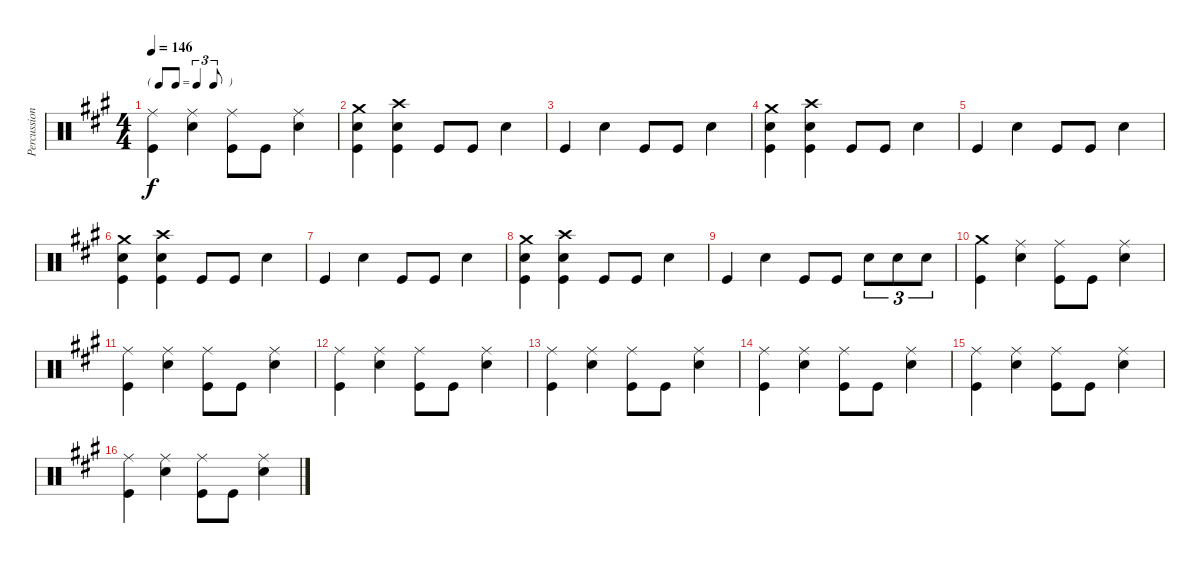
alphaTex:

\track ("Percussion" "Percussion") {instrument percussion}
\staff {score}
\articulation defaults
\ts (4 4)
\tf triplet8th
\tempo 146
\clef neutral
\ks a
("Ride (middle)" "Kick (hit)").4{dy f} ("Ride (middle)" "Snare (hit) 2").4 ("Ride (middle)" "Kick (hit)").8 "Kick (hit)".8 ("Ride (middle)" "Snare (hit) 2").4 |
("Crash medium (hit)" "Snare (hit) 2" "Kick (hit)").4 ("Crash high (hit)" "Snare (hit) 2" "Kick (hit)").4 "Kick (hit)".8 "Kick (hit)".8 "Snare (hit) 2".4 |
"Kick (hit)".4 "Snare (hit) 2".4 "Kick (hit)".8 "Kick (hit)".8 "Snare (hit) 2".4 |
("Crash medium (hit)" "Snare (hit) 2" "Kick (hit)").4 ("Crash high (hit)" "Snare (hit) 2" "Kick (hit)").4 "Kick (hit)".8 "Kick (hit)".8 "Snare (hit) 2".4 |
"Kick (hit)".4 "Snare (hit) 2".4 "Kick (hit)".8 "Kick (hit)".8 "Snare (hit) 2".4 |
("Crash medium (hit)" "Snare (hit) 2" "Kick (hit)").4 ("Crash high (hit)" "Snare (hit) 2" "Kick (hit)").4 "Kick (hit)".8 "Kick (hit)".8 "Snare (hit) 2".4 |
"Kick (hit)".4 "Snare (hit) 2".4 "Kick (hit)".8 "Kick (hit)".8 "Snare (hit) 2".4 |
("Crash medium (hit)" "Snare (hit) 2" "Kick (hit)").4 ("Crash high (hit)" "Snare (hit) 2" "Kick (hit)").4 "Kick (hit)".8 "Kick (hit)".8 "Snare (hit) 2".4 |
"Kick (hit)".4 "Snare (hit) 2".4 "Kick (hit)".8 "Kick (hit)".8 "Snare (hit) 2".8{tu (3 2)} "Snare (hit) 2".8{tu (3 2)} "Snare (hit) 2".8{tu (3 2)} |
("Crash medium (hit)" "Kick (hit)").4 ("Ride (middle)" "Snare (hit) 2").4 ("Ride (middle)" "Kick (hit)").8 "Kick (hit)".8 ("Ride (middle)" "Snare (hit) 2").4 |
("Ride (middle)" "Kick (hit)").4 ("Ride (middle)" "Snare (hit) 2").4 ("Ride (middle)" "Kick (hit)").8 "Kick (hit)".8 ("Ride (middle)" "Snare (hit) 2").4 |
("Ride (middle)" "Kick (hit)").4 ("Ride (middle)" "Snare (hit) 2").4 ("Ride (middle)" "Kick (hit)").8 "Kick (hit)".8 ("Ride (middle)" "Snare (hit) 2").4 |
("Ride (middle)" "Kick (hit)").4 ("Ride (middle)" "Snare (hit) 2").4 ("Ride (middle)" "Kick (hit)").8 "Kick (hit)".8 ("Ride (middle)" "Snare (hit) 2").4 |
("Ride (middle)" "Kick (hit)").4 ("Ride (middle)" "Snare (hit) 2").4 ("Ride (middle)" "Kick (hit)").8 "Kick (hit)".8 ("Ride (middle)" "Snare (hit) 2").4 |
("Ride (middle)" "Kick (hit)").4 ("Ride (middle)" "Snare (hit) 2").4 ("Ride (middle)" "Kick (hit)").8 "Kick (hit)".8 ("Ride (middle)" "Snare (hit) 2").4 |
("Ride (middle)" "Kick (hit)").4 ("Ride (middle)" "Snare (hit) 2").4 ("Ride (middle)" "Kick (hit)").8 "Kick (hit)".8 ("Ride (middle)" "Snare (hit) 2").4
